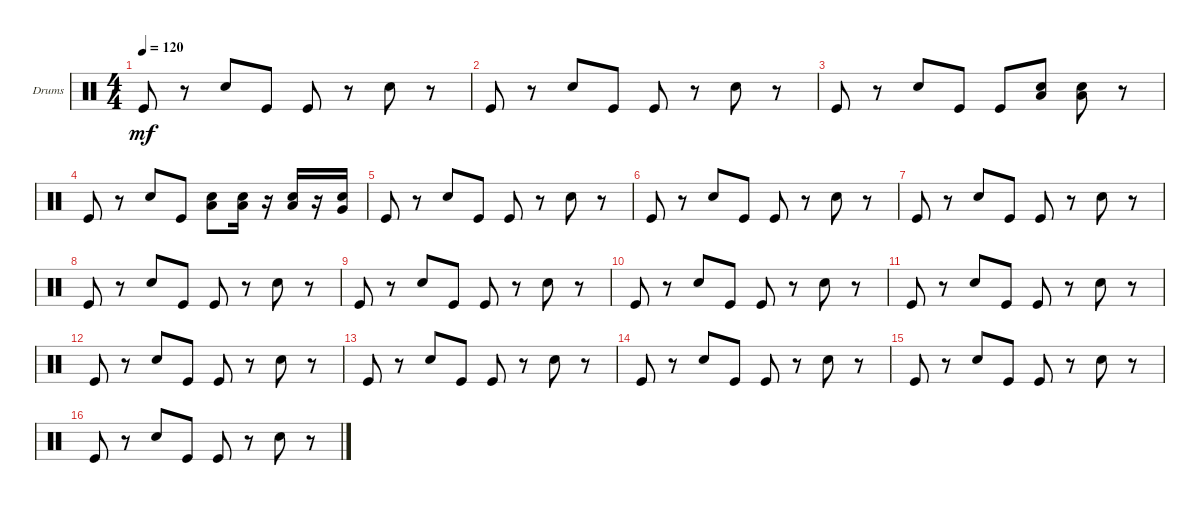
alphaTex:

\defaultSystemsLayout 4
\bracketExtendMode groupsimilarinstruments
\firstSystemTrackNameOrientation horizontal
\otherSystemsTrackNameOrientation horizontal
\track ("Drumkit" "Drums") {instrument percussion}
\staff {score}
\articulation defaults
\ts (4 4)
\tempo 120
\clef neutral
\ks c "Kick (hit)".8{dy mf}
r.8 "Snare (hit) 2".8 "Kick (hit)".8 "Kick (hit)".8 r.8 "Snare (hit) 2".8 r.8 |
"Kick (hit)".8 r.8 "Snare (hit) 2".8 "Kick (hit)".8 "Kick (hit)".8 r.8 "Snare (hit) 2".8 r.8 |
"Kick (hit)".8 r.8 "Snare (hit) 2".8 "Kick (hit)".8 "Kick (hit)".8 ("Low Tom (hit)" "Snare (hit) 2").8 ("Snare (hit) 2" "Low Tom (hit)").8 r.8 |
"Kick (hit)".8 r.8 "Snare (hit) 2".8 "Kick (hit)".8 ("Snare (hit) 2" "Low Tom (hit)").8 ("Snare (hit) 2" "Low Tom (hit)").16 r.16 ("Low Tom (hit)" "Snare (hit) 2").16 r.16 ("Very Low Tom (hit)" "Snare (hit) 2").16 |
"Kick (hit)".8 r.8 "Snare (hit) 2".8 "Kick (hit)".8 "Kick (hit)".8 r.8 "Snare (hit) 2".8 r.8 |
"Kick (hit)".8 r.8 "Snare (hit) 2".8 "Kick (hit)".8 "Kick (hit)".8 r.8 "Snare (hit) 2".8 r.8 |
"Kick (hit)".8 r.8 "Snare (hit) 2".8 "Kick (hit)".8 "Kick (hit)".8 r.8 "Snare (hit) 2".8 r.8 |
"Kick (hit)".8 r.8 "Snare (hit) 2".8 "Kick (hit)".8 "Kick (hit)".8 r.8 "Snare (hit) 2".8 r.8 |
"Kick (hit)".8 r.8 "Snare (hit) 2".8 "Kick (hit)".8 "Kick (hit)".8 r.8 "Snare (hit) 2".8 r.8 |
"Kick (hit)".8 r.8 "Snare (hit) 2".8 "Kick (hit)".8 "Kick (hit)".8 r.8 "Snare (hit) 2".8 r.8 |
"Kick (hit)".8 r.8 "Snare (hit) 2".8 "Kick (hit)".8 "Kick (hit)".8 r.8 "Snare (hit) 2".8 r.8 |
"Kick (hit)".8 r.8 "Snare (hit) 2".8 "Kick (hit)".8 "Kick (hit)".8 r.8 "Snare (hit) 2".8 r.8 |
"Kick (hit)".8 r.8 "Snare (hit) 2".8 "Kick (hit)".8 "Kick (hit)".8 r.8 "Snare (hit) 2".8 r.8 |
"Kick (hit)".8 r.8 "Snare (hit) 2".8 "Kick (hit)".8 "Kick (hit)".8 r.8 "Snare (hit) 2".8 r.8 |
"Kick (hit)".8 r.8 "Snare (hit) 2".8 "Kick (hit)".8 "Kick (hit)".8 r.8 "Snare (hit) 2".8 r.8 |
"Kick (hit)".8 r.8 "Snare (hit) 2".8 "Kick (hit)".8 "Kick (hit)".8 r.8 "Snare (hit) 2".8 r.8
